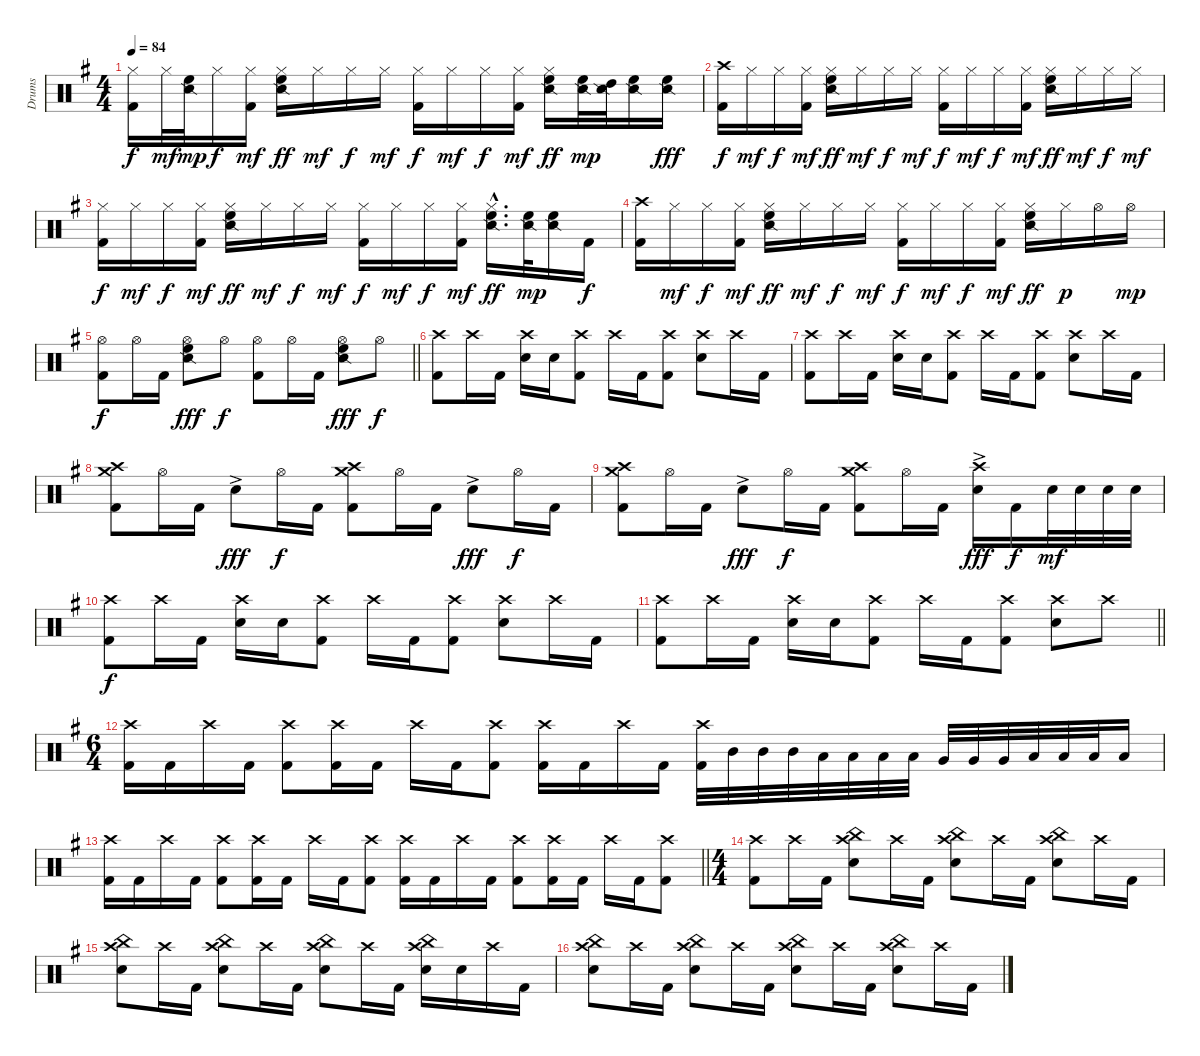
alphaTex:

\track ("Drums" "Drums") {instrument percussion}
\staff {score}
\articulation defaults
\ts (4 4)
\tempo 84
\clef neutral
\ks eminor
("Hi-Hat (closed)" "Kick (hit) 2").16{dy f} "Hi-Hat (closed)".32{dy mf} ("High Floor Tom (hit)" "Snare (side stick) 2").32{dy mp} "Hi-Hat (closed)".16{dy f} ("Hi-Hat (closed)" "Kick (hit) 2").16{dy mf} ("Hi-Hat (closed)" "High Floor Tom (hit)" "Snare (side stick) 2").16{dy ff} "Hi-Hat (closed)".16{dy mf} "Hi-Hat (closed)".16{dy f} "Hi-Hat (closed)".16{dy mf} ("Hi-Hat (closed)" "Kick (hit) 2").16{dy f} "Hi-Hat (closed)".16{dy mf} "Hi-Hat (closed)".16{dy f} ("Hi-Hat (closed)" "Kick (hit) 2").16{dy mf} ("Hi-Hat (closed)" "High Floor Tom (hit)" "Snare (side stick) 2").16{dy ff} ("High Floor Tom (hit)" "Snare (side stick) 2").32{dy mp} ("High Tom (hit)" "Snare (side stick) 2").32 ("High Floor Tom (hit)" "Snare (side stick) 2").16 ("High Floor Tom (hit)" "Snare (side stick) 2").16{dy fff} |
("Crash high (hit)" "Kick (hit) 2").16{dy f} "Hi-Hat (closed)".16{dy mf} "Hi-Hat (closed)".16{dy f} ("Hi-Hat (closed)" "Kick (hit) 2").16{dy mf} ("Hi-Hat (closed)" "High Floor Tom (hit)" "Snare (side stick) 2").16{dy ff} "Hi-Hat (closed)".16{dy mf} "Hi-Hat (closed)".16{dy f} "Hi-Hat (closed)".16{dy mf} ("Hi-Hat (closed)" "Kick (hit) 2").16{dy f} "Hi-Hat (closed)".16{dy mf} "Hi-Hat (closed)".16{dy f} ("Hi-Hat (closed)" "Kick (hit) 2").16{dy mf} ("Hi-Hat (closed)" "High Floor Tom (hit)" "Snare (side stick) 2").16{dy ff} "Hi-Hat (closed)".16{dy mf} "Hi-Hat (closed)".16{dy f} "Hi-Hat (closed)".16{dy mf} |
("Hi-Hat (closed)" "Kick (hit) 2").16{dy f} "Hi-Hat (closed)".16{dy mf} "Hi-Hat (closed)".16{dy f} ("Hi-Hat (closed)" "Kick (hit) 2").16{dy mf} ("Hi-Hat (closed)" "High Floor Tom (hit)" "Snare (side stick) 2").16{dy ff} "Hi-Hat (closed)".16{dy mf} "Hi-Hat (closed)".16{dy f} "Hi-Hat (closed)".16{dy mf} ("Hi-Hat (closed)" "Kick (hit) 2").16{dy f} "Hi-Hat (closed)".16{dy mf} "Hi-Hat (closed)".16{dy f} ("Hi-Hat (closed)" "Kick (hit) 2").16{dy mf} ("Hi-Hat (closed)"{hac} "High Floor Tom (hit)"{hac} "Snare (side stick) 2"{hac}).16{d dy ff} ("High Floor Tom (hit)" "Snare (side stick) 2").32{dy mp} ("High Floor Tom (hit)" "Snare (side stick) 2").16 "Kick (hit) 2".16{dy f} |
("Crash high (hit)" "Kick (hit) 2").16 "Hi-Hat (closed)".16{dy mf} "Hi-Hat (closed)".16{dy f} ("Hi-Hat (closed)" "Kick (hit) 2").16{dy mf} ("Hi-Hat (closed)" "High Floor Tom (hit)" "Snare (side stick) 2").16{dy ff} "Hi-Hat (closed)".16{dy mf} "Hi-Hat (closed)".16{dy f} "Hi-Hat (closed)".16{dy mf} ("Hi-Hat (closed)" "Kick (hit) 2").16{dy f} "Hi-Hat (closed)".16{dy mf} "Hi-Hat (closed)".16{dy f} ("Hi-Hat (closed)" "Kick (hit) 2").16{dy mf} ("Hi-Hat (closed)" "High Floor Tom (hit)" "Snare (side stick) 2").16{dy ff} "Hi-Hat (closed)".16{dy p} "Hi-Hat (open)".16 "Hi-Hat (open)".16{dy mp} |
\barLineRight lightlight
("Hi-Hat (open)" "Kick (hit) 2").8{dy f} "Hi-Hat (open)".16 "Kick (hit) 2".16 ("Hi-Hat (open)" "High Floor Tom (hit)" "Snare (side stick) 2").8{dy fff} "Hi-Hat (open)".8{dy f} ("Hi-Hat (open)" "Kick (hit) 2").8 "Hi-Hat (open)".16 "Kick (hit) 2".16 ("Hi-Hat (open)" "High Floor Tom (hit)" "Snare (side stick) 2").8{dy fff} "Hi-Hat (open)".8{dy f} |
("Crash high (hit)" "Kick (hit) 2").8 "Crash high (hit)".16 "Kick (hit) 2".16 ("Crash high (hit)" "Snare (hit) 2").16 "Snare (hit) 2".16 ("Crash high (hit)" "Kick (hit) 2").8 "Crash high (hit)".16 "Kick (hit) 2".16 ("Crash high (hit)" "Kick (hit) 2").8 ("Crash high (hit)" "Snare (hit) 2").8 "Crash high (hit)".16 "Kick (hit) 2".16 |
("Crash high (hit)" "Kick (hit) 2").8 "Crash high (hit)".16 "Kick (hit) 2".16 ("Crash high (hit)" "Snare (hit) 2").16 "Snare (hit) 2".16 ("Crash high (hit)" "Kick (hit) 2").8 "Crash high (hit)".16 "Kick (hit) 2".16 ("Crash high (hit)" "Kick (hit) 2").8 ("Crash high (hit)" "Snare (hit) 2").8 "Crash high (hit)".16 "Kick (hit) 2".16 |
("Crash high (hit)" "Crash medium (hit)" "Kick (hit) 2").8 "Hi-Hat (open)".16 "Kick (hit) 2".16 "Snare (hit) 2"{ac}.8{dy fff} "Hi-Hat (open)".16{dy f} "Kick (hit) 2".16 ("Crash high (hit)" "Crash medium (hit)" "Kick (hit) 2").8 "Hi-Hat (open)".16 "Kick (hit) 2".16 "Snare (hit) 2"{ac}.8{dy fff} "Hi-Hat (open)".16{dy f} "Kick (hit) 2".16 |
("Crash high (hit)" "Crash medium (hit)" "Kick (hit) 2").8 "Hi-Hat (open)".16 "Kick (hit) 2".16 "Snare (hit) 2"{ac}.8{dy fff} "Hi-Hat (open)".16{dy f} "Kick (hit) 2".16 ("Crash high (hit)" "Crash medium (hit)" "Kick (hit) 2").8 "Hi-Hat (open)".16 "Kick (hit) 2".16 ("Crash high (hit)" "Snare (hit) 2"{ac}).16{dy fff} "Kick (hit) 2".16{dy f} "Snare (hit) 2".32{dy mf} "Snare (hit) 2".32 "Snare (hit) 2".32 "Snare (hit) 2".32 |
("Crash high (hit)" "Kick (hit) 2").8{dy f} "Crash high (hit)".16 "Kick (hit) 2".16 ("Crash high (hit)" "Snare (hit) 2").16 "Snare (hit) 2".16 ("Crash high (hit)" "Kick (hit) 2").8 "Crash high (hit)".16 "Kick (hit) 2".16 ("Crash high (hit)" "Kick (hit) 2").8 ("Crash high (hit)" "Snare (hit) 2").8 "Crash high (hit)".16 "Kick (hit) 2".16 |
\barLineRight lightlight
("Crash high (hit)" "Kick (hit) 2").8 "Crash high (hit)".16 "Kick (hit) 2".16 ("Crash high (hit)" "Snare (hit) 2").16 "Snare (hit) 2".16 ("Crash high (hit)" "Kick (hit) 2").8 "Crash high (hit)".16 "Kick (hit) 2".16 ("Crash high (hit)" "Kick (hit) 2").8 ("Crash high (hit)" "Snare (hit) 2").8 "Crash high (hit)".8 |
\ts (6 4)
("Crash high (hit)" "Kick (hit) 2").16 "Kick (hit) 2".16 "Crash high (hit)".16 "Kick (hit) 2".16 ("Crash high (hit)" "Kick (hit) 2").8 ("Crash high (hit)" "Kick (hit) 2").16 "Kick (hit) 2".16 "Crash high (hit)".16 "Kick (hit) 2".16 ("Crash high (hit)" "Kick (hit) 2").8 ("Crash high (hit)" "Kick (hit) 2").16 "Kick (hit) 2".16 "Crash high (hit)".16 "Kick (hit) 2".16 ("Crash high (hit)" "Kick (hit) 2").32 "Mid Tom (hit)".32 "Mid Tom (hit)".32 "Mid Tom (hit)".32 "Low Tom (hit)".32 "Low Tom (hit)".32 "Low Tom (hit)".32 "Low Tom (hit)".32 "Very Low Tom (hit)".32 "Very Low Tom (hit)".32 "Very Low Tom (hit)".32 "Low Floor Tom (hit)".32 "Low Floor Tom (hit)".32 "Low Floor Tom (hit)".32 "Low Floor Tom (hit)".16 |
\barLineRight lightlight
("Crash high (hit)" "Kick (hit) 2").16 "Kick (hit) 2".16 "Crash high (hit)".16 "Kick (hit) 2".16 ("Crash high (hit)" "Kick (hit) 2").8 ("Crash high (hit)" "Kick (hit) 2").16 "Kick (hit) 2".16 "Crash high (hit)".16 "Kick (hit) 2".16 ("Crash high (hit)" "Kick (hit) 2").8 ("Crash high (hit)" "Kick (hit) 2").16 "Kick (hit) 2".16 "Crash high (hit)".16 "Kick (hit) 2".16 ("Crash high (hit)" "Kick (hit) 2").8 ("Crash high (hit)" "Kick (hit) 2").16 "Kick (hit) 2".16 "Crash high (hit)".16 "Kick (hit) 2".16 ("Crash high (hit)" "Kick (hit) 2").8 |
\ts (4 4)
("Crash high (hit)" "Kick (hit) 2").8 "Crash high (hit)".16 "Kick (hit) 2".16 ("China (hit)" "Crash high (hit)" "Snare (hit) 2").8 "Crash high (hit)".16 "Kick (hit) 2".16 ("China (hit)" "Crash high (hit)" "Snare (hit) 2").8 "Crash high (hit)".16 "Kick (hit) 2".16 ("China (hit)" "Crash high (hit)" "Snare (hit) 2").8 "Crash high (hit)".16 "Kick (hit) 2".16 |
("China (hit)" "Crash high (hit)" "Snare (hit) 2").8 "Crash high (hit)".16 "Kick (hit) 2".16 ("China (hit)" "Crash high (hit)" "Snare (hit) 2").8 "Crash high (hit)".16 "Kick (hit) 2".16 ("China (hit)" "Crash high (hit)" "Snare (hit) 2").8 "Crash high (hit)".16 "Kick (hit) 2".16 ("China (hit)" "Crash high (hit)" "Snare (hit) 2").16 "Snare (hit) 2".16 "Crash high (hit)".16 "Kick (hit) 2".16 |
("China (hit)" "Crash high (hit)" "Snare (hit) 2").8 "Crash high (hit)".16 "Kick (hit) 2".16 ("China (hit)" "Crash high (hit)" "Snare (hit) 2").8 "Crash high (hit)".16 "Kick (hit) 2".16 ("China (hit)" "Crash high (hit)" "Snare (hit) 2").8 "Crash high (hit)".16 "Kick (hit) 2".16 ("China (hit)" "Crash high (hit)" "Snare (hit) 2").8 "Crash high (hit)".16 "Kick (hit) 2".16
